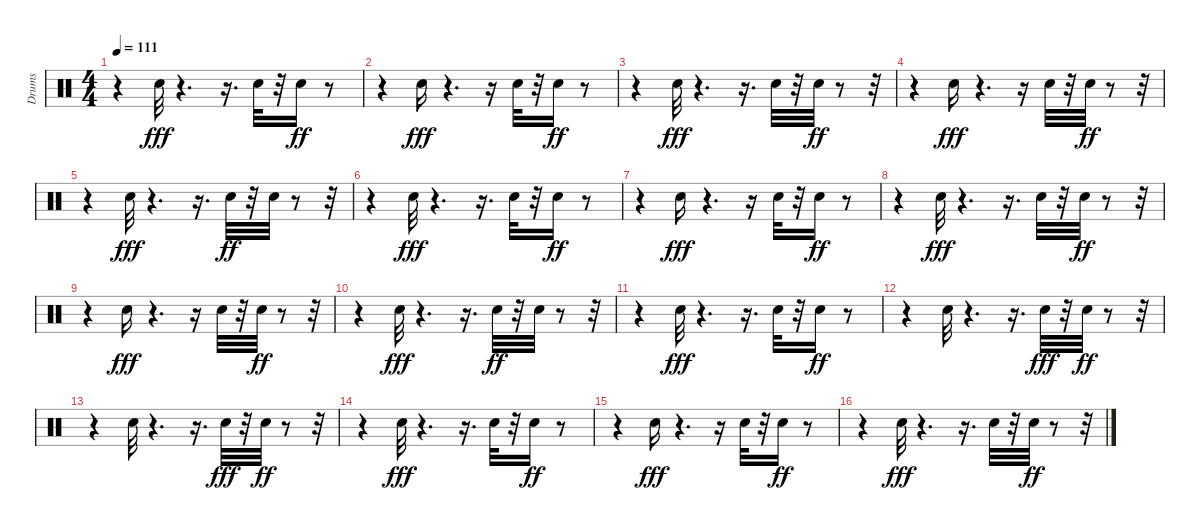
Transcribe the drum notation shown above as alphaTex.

\track ("Drums" "Drums") {instrument percussion}
\staff {score}
\articulation defaults
\ts (4 4)
\tempo 111
\clef neutral
\ks c
r.4{dy ff} "Electric Snare (hit)".32{dy fff} r.4{d} r.16{d} "Electric Snare (hit)".32 r.32 "Electric Snare (hit)".16{dy ff} r.8 |
r.4 "Electric Snare (hit)".16{dy fff} r.4{d} r.16 "Electric Snare (hit)".32 r.32 "Electric Snare (hit)".16{dy ff} r.8 |
r.4 "Electric Snare (hit)".32{dy fff} r.4{d} r.16{d} "Electric Snare (hit)".32 r.32 "Electric Snare (hit)".32{dy ff} r.8 r.32 |
r.4 "Electric Snare (hit)".16{dy fff} r.4{d} r.16 "Electric Snare (hit)".32 r.32 "Electric Snare (hit)".32{dy ff} r.8 r.32 |
r.4 "Electric Snare (hit)".32{dy fff} r.4{d} r.16{d} "Electric Snare (hit)".32{dy ff} r.32 "Electric Snare (hit)".32 r.8 r.32 |
r.4 "Electric Snare (hit)".32{dy fff} r.4{d} r.16{d} "Electric Snare (hit)".32 r.32 "Electric Snare (hit)".16{dy ff} r.8 |
r.4 "Electric Snare (hit)".16{dy fff} r.4{d} r.16 "Electric Snare (hit)".32 r.32 "Electric Snare (hit)".16{dy ff} r.8 |
r.4 "Electric Snare (hit)".32{dy fff} r.4{d} r.16{d} "Electric Snare (hit)".32 r.32 "Electric Snare (hit)".32{dy ff} r.8 r.32 |
r.4 "Electric Snare (hit)".16{dy fff} r.4{d} r.16 "Electric Snare (hit)".32 r.32 "Electric Snare (hit)".32{dy ff} r.8 r.32 |
r.4 "Electric Snare (hit)".32{dy fff} r.4{d} r.16{d} "Electric Snare (hit)".32{dy ff} r.32 "Electric Snare (hit)".32 r.8 r.32 |
r.4 "Electric Snare (hit)".32{dy fff} r.4{d} r.16{d} "Electric Snare (hit)".32 r.32 "Electric Snare (hit)".16{dy ff} r.8 |
r.4 "Electric Snare (hit)".32 r.4{d} r.16{d} "Electric Snare (hit)".32{dy fff} r.32 "Electric Snare (hit)".32{dy ff} r.8 r.32 |
r.4 "Electric Snare (hit)".32 r.4{d} r.16{d} "Electric Snare (hit)".32{dy fff} r.32 "Electric Snare (hit)".32{dy ff} r.8 r.32 |
r.4 "Electric Snare (hit)".32{dy fff} r.4{d} r.16{d} "Electric Snare (hit)".32 r.32 "Electric Snare (hit)".16{dy ff} r.8 |
r.4 "Electric Snare (hit)".16{dy fff} r.4{d} r.16 "Electric Snare (hit)".32 r.32 "Electric Snare (hit)".16{dy ff} r.8 |
r.4 "Electric Snare (hit)".32{dy fff} r.4{d} r.16{d} "Electric Snare (hit)".32 r.32 "Electric Snare (hit)".32{dy ff} r.8 r.32
